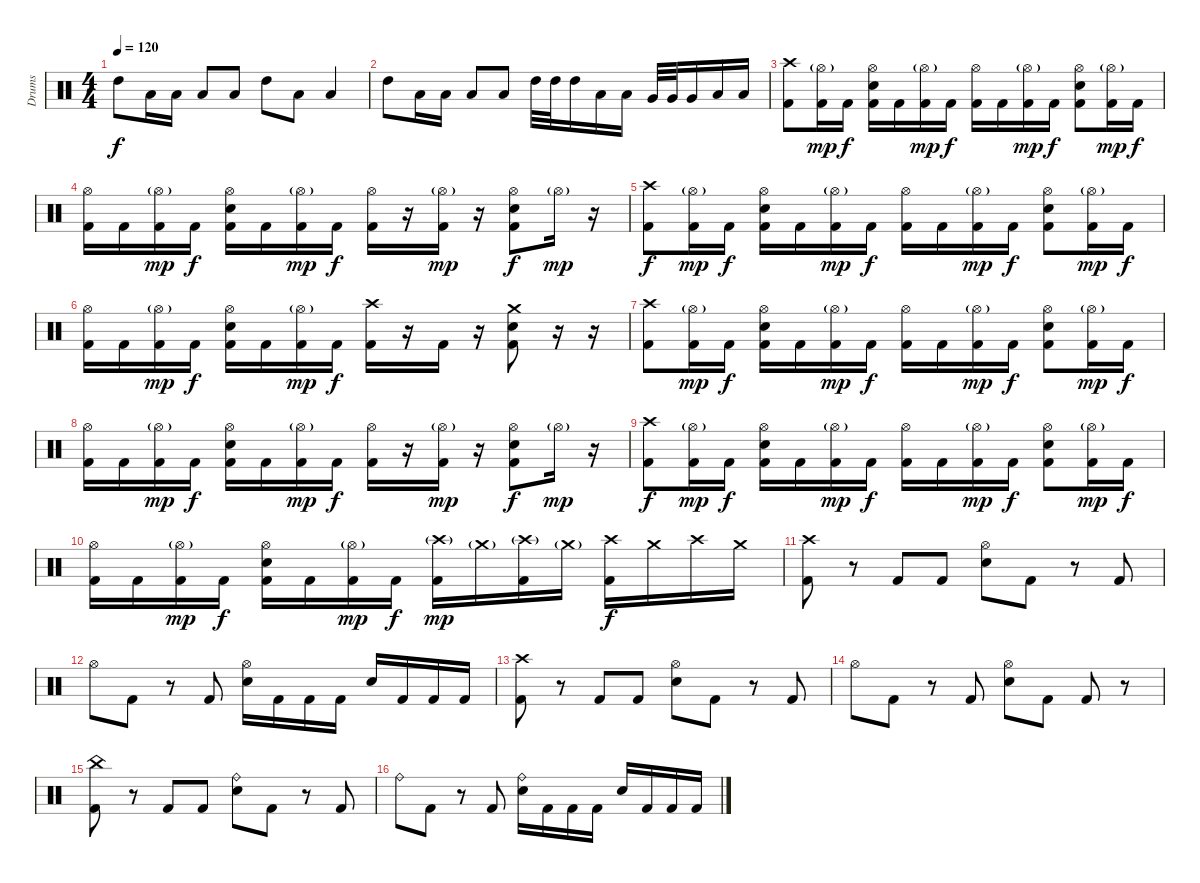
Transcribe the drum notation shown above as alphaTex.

\track ("Drums" "Drums") {instrument percussion}
\staff {score}
\articulation defaults
\ts (4 4)
\tempo 120
\clef neutral
\ks c "High Tom (hit)".8{dy f} "Low Tom (hit)".16 "Low Tom (hit)".16 "Low Tom (hit)".8 "Low Tom (hit)".8 "High Tom (hit)".8 "Low Tom (hit)".8 "Low Tom (hit)".4
|
"High Tom (hit)".8 "Low Tom (hit)".16 "Low Tom (hit)".16 "Low Tom (hit)".8 "Low Tom (hit)".8 "High Tom (hit)".32 "High Tom (hit)".32 "High Tom (hit)".16 "Low Tom (hit)".16 "Low Tom (hit)".16 "Very Low Tom (hit)".32 "Very Low Tom (hit)".32 "Very Low Tom (hit)".16 "Low Floor Tom (hit)".16 "Low Floor Tom (hit)".16 |
("Crash high (hit)" "Kick (hit) 2").8 ("Hi-Hat (open)"{g} "Kick (hit) 2").16{dy mp} "Kick (hit) 2".16{dy f} ("Hi-Hat (open)" "Snare (hit) 2" "Kick (hit) 2").16 "Kick (hit) 2".16 ("Hi-Hat (open)"{g} "Kick (hit) 2").16{dy mp} "Kick (hit) 2".16{dy f} ("Hi-Hat (open)" "Kick (hit) 2").16 "Kick (hit) 2".16 ("Hi-Hat (open)"{g} "Kick (hit) 2").16{dy mp} "Kick (hit) 2".16{dy f} ("Hi-Hat (open)" "Snare (hit) 2" "Kick (hit) 2").8 ("Hi-Hat (open)"{g} "Kick (hit) 2").16{dy mp} "Kick (hit) 2".16{dy f} |
("Hi-Hat (open)" "Kick (hit) 2").16 "Kick (hit) 2".16 ("Hi-Hat (open)"{g} "Kick (hit) 2").16{dy mp} "Kick (hit) 2".16{dy f} ("Hi-Hat (open)" "Snare (hit) 2" "Kick (hit) 2").16 "Kick (hit) 2".16 ("Hi-Hat (open)"{g} "Kick (hit) 2").16{dy mp} "Kick (hit) 2".16{dy f} ("Hi-Hat (open)" "Kick (hit) 2").16 r.16 ("Hi-Hat (open)"{g} "Kick (hit) 2").16{dy mp} r.16 ("Hi-Hat (open)" "Snare (hit) 2" "Kick (hit) 2").8{dy f} "Hi-Hat (open)"{g}.16{dy mp} r.16 |
("Crash high (hit)" "Kick (hit) 2").8{dy f} ("Hi-Hat (open)"{g} "Kick (hit) 2").16{dy mp} "Kick (hit) 2".16{dy f} ("Hi-Hat (open)" "Snare (hit) 2" "Kick (hit) 2").16 "Kick (hit) 2".16 ("Hi-Hat (open)"{g} "Kick (hit) 2").16{dy mp} "Kick (hit) 2".16{dy f} ("Hi-Hat (open)" "Kick (hit) 2").16 "Kick (hit) 2".16 ("Hi-Hat (open)"{g} "Kick (hit) 2").16{dy mp} "Kick (hit) 2".16{dy f} ("Hi-Hat (open)" "Snare (hit) 2" "Kick (hit) 2").8 ("Hi-Hat (open)"{g} "Kick (hit) 2").16{dy mp} "Kick (hit) 2".16{dy f} |
("Hi-Hat (open)" "Kick (hit) 2").16 "Kick (hit) 2".16 ("Hi-Hat (open)"{g} "Kick (hit) 2").16{dy mp} "Kick (hit) 2".16{dy f} ("Hi-Hat (open)" "Snare (hit) 2" "Kick (hit) 2").16 "Kick (hit) 2".16 ("Hi-Hat (open)"{g} "Kick (hit) 2").16{dy mp} "Kick (hit) 2".16{dy f} ("Crash high (hit)" "Kick (hit) 2").16 r.16 "Kick (hit) 2".16 r.16 ("Crash medium (hit)" "Snare (hit) 2" "Kick (hit) 2").8 r.16 r.16 |
("Crash high (hit)" "Kick (hit) 2").8 ("Hi-Hat (open)"{g} "Kick (hit) 2").16{dy mp} "Kick (hit) 2".16{dy f} ("Hi-Hat (open)" "Snare (hit) 2" "Kick (hit) 2").16 "Kick (hit) 2".16 ("Hi-Hat (open)"{g} "Kick (hit) 2").16{dy mp} "Kick (hit) 2".16{dy f} ("Hi-Hat (open)" "Kick (hit) 2").16 "Kick (hit) 2".16 ("Hi-Hat (open)"{g} "Kick (hit) 2").16{dy mp} "Kick (hit) 2".16{dy f} ("Hi-Hat (open)" "Snare (hit) 2" "Kick (hit) 2").8 ("Hi-Hat (open)"{g} "Kick (hit) 2").16{dy mp} "Kick (hit) 2".16{dy f} |
("Hi-Hat (open)" "Kick (hit) 2").16 "Kick (hit) 2".16 ("Hi-Hat (open)"{g} "Kick (hit) 2").16{dy mp} "Kick (hit) 2".16{dy f} ("Hi-Hat (open)" "Snare (hit) 2" "Kick (hit) 2").16 "Kick (hit) 2".16 ("Hi-Hat (open)"{g} "Kick (hit) 2").16{dy mp} "Kick (hit) 2".16{dy f} ("Hi-Hat (open)" "Kick (hit) 2").16 r.16 ("Hi-Hat (open)"{g} "Kick (hit) 2").16{dy mp} r.16 ("Hi-Hat (open)" "Snare (hit) 2" "Kick (hit) 2").8{dy f} "Hi-Hat (open)"{g}.16{dy mp} r.16 |
("Crash high (hit)" "Kick (hit) 2").8{dy f} ("Hi-Hat (open)"{g} "Kick (hit) 2").16{dy mp} "Kick (hit) 2".16{dy f} ("Hi-Hat (open)" "Snare (hit) 2" "Kick (hit) 2").16 "Kick (hit) 2".16 ("Hi-Hat (open)"{g} "Kick (hit) 2").16{dy mp} "Kick (hit) 2".16{dy f} ("Hi-Hat (open)" "Kick (hit) 2").16 "Kick (hit) 2".16 ("Hi-Hat (open)"{g} "Kick (hit) 2").16{dy mp} "Kick (hit) 2".16{dy f} ("Hi-Hat (open)" "Snare (hit) 2" "Kick (hit) 2").8 ("Hi-Hat (open)"{g} "Kick (hit) 2").16{dy mp} "Kick (hit) 2".16{dy f} |
("Hi-Hat (open)" "Kick (hit) 2").16 "Kick (hit) 2".16 ("Hi-Hat (open)"{g} "Kick (hit) 2").16{dy mp} "Kick (hit) 2".16{dy f} ("Hi-Hat (open)" "Snare (hit) 2" "Kick (hit) 2").16 "Kick (hit) 2".16 ("Hi-Hat (open)"{g} "Kick (hit) 2").16{dy mp} "Kick (hit) 2".16{dy f} ("Crash high (hit)"{g} "Kick (hit) 2").16{dy mp} "Crash medium (hit)"{g}.16 ("Crash high (hit)"{g} "Kick (hit) 2").16 "Crash medium (hit)"{g}.16 ("Crash high (hit)" "Kick (hit) 2").16{dy f} "Crash medium (hit)".16 "Crash high (hit)".16 "Crash medium (hit)".16 |
("Crash high (hit)" "Kick (hit) 2").8 r.8 "Kick (hit) 2".8 "Kick (hit) 2".8 ("Hi-Hat (open)" "Snare (hit) 2").8 "Kick (hit) 2".8 r.8 "Kick (hit) 2".8 |
"Hi-Hat (open)".8 "Kick (hit) 2".8 r.8 "Kick (hit) 2".8 ("Hi-Hat (open)" "Snare (hit) 2").16 "Kick (hit) 2".16 "Kick (hit) 2".16 "Kick (hit) 2".16 "Snare (hit) 2".16 "Kick (hit) 2".16 "Kick (hit) 2".16 "Kick (hit) 2".16 |
("Crash high (hit)" "Kick (hit) 2").8 r.8 "Kick (hit) 2".8 "Kick (hit) 2".8 ("Hi-Hat (open)" "Snare (hit) 2").8 "Kick (hit) 2".8 r.8 "Kick (hit) 2".8 |
"Hi-Hat (open)".8 "Kick (hit) 2".8 r.8 "Kick (hit) 2".8 ("Hi-Hat (open)" "Snare (hit) 2").8 "Kick (hit) 2".8 "Kick (hit) 2".8 r.8 |
("China (hit)" "Kick (hit) 2").8 r.8 "Kick (hit) 2".8 "Kick (hit) 2".8 ("Ride (bell)" "Snare (hit) 2").8 "Kick (hit) 2".8 r.8 "Kick (hit) 2".8 |
"Ride (bell)".8 "Kick (hit) 2".8 r.8 "Kick (hit) 2".8 ("Ride (bell)" "Snare (hit) 2").16 "Kick (hit) 2".16 "Kick (hit) 2".16 "Kick (hit) 2".16 "Snare (hit) 2".16 "Kick (hit) 2".16 "Kick (hit) 2".16 "Kick (hit) 2".16
